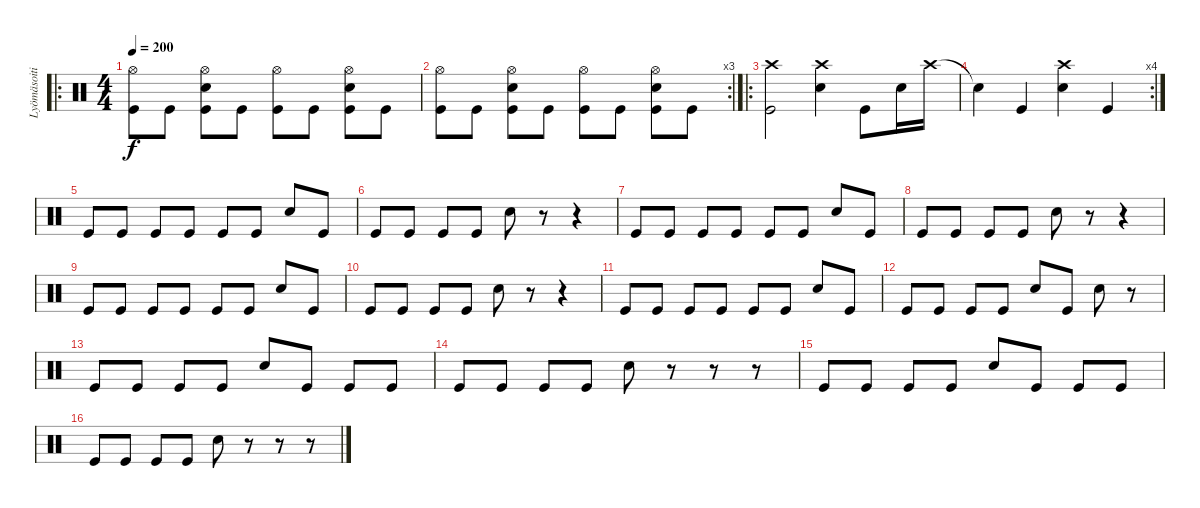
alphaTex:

\track ("Lyömäsoitin" "Lyömäsoiti") {instrument percussion}
\staff {score}
\articulation defaults
\ro
\ts (4 4)
\tempo 200
\clef neutral
\ks c
("Hi-Hat (open)" "Kick (hit)").8{dy f} "Kick (hit)".8 ("Snare (hit) 2" "Hi-Hat (open)" "Kick (hit)").8 "Kick (hit)".8 ("Hi-Hat (open)" "Kick (hit)").8 "Kick (hit)".8 ("Snare (hit) 2" "Hi-Hat (open)" "Kick (hit)").8 "Kick (hit)".8 |
\rc 3
("Hi-Hat (open)" "Kick (hit)").8 "Kick (hit)".8 ("Snare (hit) 2" "Hi-Hat (open)" "Kick (hit)").8 "Kick (hit)".8 ("Hi-Hat (open)" "Kick (hit)").8 "Kick (hit)".8 ("Snare (hit) 2" "Hi-Hat (open)" "Kick (hit)").8 "Kick (hit)".8 |
\ro
("Crash high (hit)" "Kick (hit)").2 ("Crash high (hit)" "Snare (hit) 2").4 "Kick (hit)".8 "Snare (hit) 2".16 "Crash high (hit)".16 |
\rc 4 "Snare (hit)"{t}.4 "Kick (hit)".4
("Crash high (hit)" "Snare (hit) 2").4 "Kick (hit)".4 |
"Kick (hit)".8 "Kick (hit)".8 "Kick (hit)".8 "Kick (hit)".8 "Kick (hit)".8 "Kick (hit)".8 "Snare (hit) 2".8 "Kick (hit)".8 |
"Kick (hit)".8 "Kick (hit)".8 "Kick (hit)".8 "Kick (hit)".8 "Snare (hit) 2".8 r.8 r.4 |
"Kick (hit)".8 "Kick (hit)".8 "Kick (hit)".8 "Kick (hit)".8 "Kick (hit)".8 "Kick (hit)".8 "Snare (hit) 2".8 "Kick (hit)".8 |
"Kick (hit)".8 "Kick (hit)".8 "Kick (hit)".8 "Kick (hit)".8 "Snare (hit) 2".8 r.8 r.4 |
"Kick (hit)".8 "Kick (hit)".8 "Kick (hit)".8 "Kick (hit)".8 "Kick (hit)".8 "Kick (hit)".8 "Snare (hit) 2".8 "Kick (hit)".8 |
"Kick (hit)".8 "Kick (hit)".8 "Kick (hit)".8 "Kick (hit)".8 "Snare (hit) 2".8 r.8 r.4 |
"Kick (hit)".8 "Kick (hit)".8 "Kick (hit)".8 "Kick (hit)".8 "Kick (hit)".8 "Kick (hit)".8 "Snare (hit) 2".8 "Kick (hit)".8 |
"Kick (hit)".8 "Kick (hit)".8 "Kick (hit)".8 "Kick (hit)".8 "Snare (hit) 2".8 "Kick (hit)".8 "Snare (hit) 2".8 r.8 |
"Kick (hit)".8 "Kick (hit)".8 "Kick (hit)".8 "Kick (hit)".8 "Snare (hit) 2".8 "Kick (hit)".8 "Kick (hit)".8 "Kick (hit)".8 |
"Kick (hit)".8 "Kick (hit)".8 "Kick (hit)".8 "Kick (hit)".8 "Snare (hit) 2".8 r.8 r.8 r.8 |
"Kick (hit)".8 "Kick (hit)".8 "Kick (hit)".8 "Kick (hit)".8 "Snare (hit) 2".8 "Kick (hit)".8 "Kick (hit)".8 "Kick (hit)".8 |
"Kick (hit)".8 "Kick (hit)".8 "Kick (hit)".8 "Kick (hit)".8 "Snare (hit) 2".8 r.8 r.8 r.8
